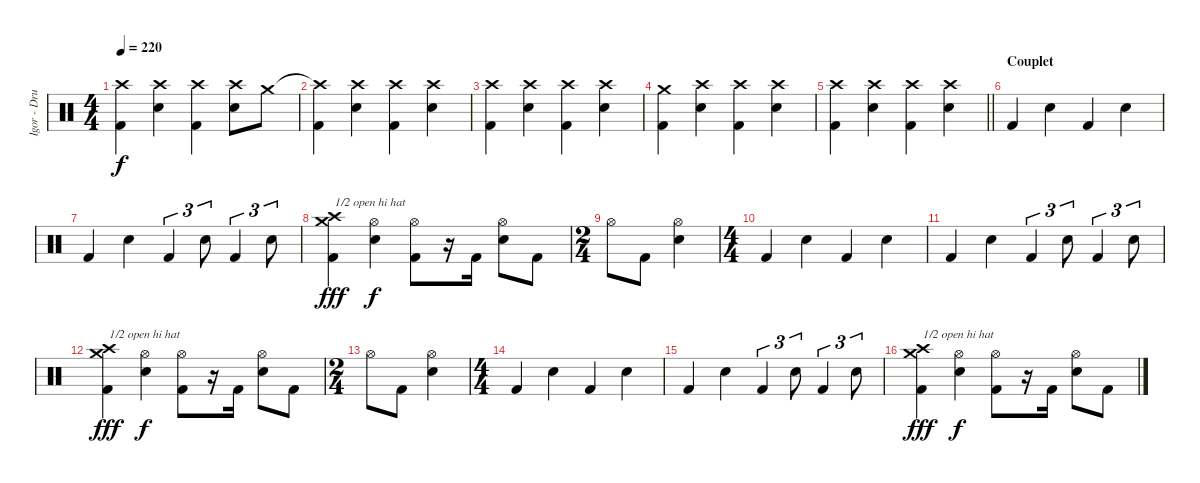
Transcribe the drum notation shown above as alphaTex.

\track ("Igor - Drums" "Igor - Dru") {instrument percussion}
\staff {score}
\articulation defaults
\ts (4 4)
\tempo 220
\clef neutral
\ks c
("Crash high (hit)" "Kick (hit) 2").4{dy f} ("Crash high (hit)" "Snare (hit) 2").4 ("Crash high (hit)" "Kick (hit) 2").4 ("Crash high (hit)" "Snare (hit) 2").8 "Crash medium (hit)".8 |
("Crash high (hit)"{t} "Kick (hit) 2").4 ("Crash high (hit)" "Snare (hit) 2").4 ("Crash high (hit)" "Kick (hit) 2").4 ("Crash high (hit)" "Snare (hit) 2").4 |
("Crash high (hit)" "Kick (hit) 2").4 ("Crash high (hit)" "Snare (hit) 2").4 ("Crash high (hit)" "Kick (hit) 2").4 ("Crash high (hit)" "Snare (hit) 2").4 |
("Crash medium (hit)" "Kick (hit) 2").4 ("Crash high (hit)" "Snare (hit) 2").4 ("Crash high (hit)" "Kick (hit) 2").4 ("Crash high (hit)" "Snare (hit) 2").4 |
\barLineRight lightlight
("Crash high (hit)" "Kick (hit) 2").4 ("Crash high (hit)" "Snare (hit) 2").4 ("Crash high (hit)" "Kick (hit) 2").4 ("Crash high (hit)" "Snare (hit) 2").4 |
\section ("" "Couplet")
"Kick (hit) 2".4 "Electric Snare (hit)".4 "Kick (hit) 2".4 "Electric Snare (hit)".4 |
"Kick (hit) 2".4 "Electric Snare (hit)".4 "Kick (hit) 2".4{tu (3 2)} "Electric Snare (hit)".8{tu (3 2)} "Kick (hit) 2".4{tu (3 2)} "Electric Snare (hit)".8{tu (3 2)} |
("Crash high (hit)" "Crash medium (hit)" "Kick (hit) 2").4{txt "1/2 open hi hat" dy fff} ("Hi-Hat (open)" "Electric Snare (hit)").4{dy f} ("Hi-Hat (open)" "Kick (hit) 2").8 r.16 "Kick (hit) 2".16 ("Hi-Hat (open)" "Electric Snare (hit)").8 "Kick (hit) 2".8 |
\ts (2 4)
"Hi-Hat (open)".8 "Kick (hit) 2".8 ("Hi-Hat (open)" "Electric Snare (hit)").4 |
\ts (4 4)
"Kick (hit) 2".4 "Electric Snare (hit)".4 "Kick (hit) 2".4 "Electric Snare (hit)".4 |
"Kick (hit) 2".4 "Electric Snare (hit)".4 "Kick (hit) 2".4{tu (3 2)} "Electric Snare (hit)".8{tu (3 2)} "Kick (hit) 2".4{tu (3 2)} "Electric Snare (hit)".8{tu (3 2)} |
("Crash high (hit)" "Crash medium (hit)" "Kick (hit) 2").4{txt "1/2 open hi hat" dy fff} ("Hi-Hat (open)" "Electric Snare (hit)").4{dy f} ("Hi-Hat (open)" "Kick (hit) 2").8 r.16 "Kick (hit) 2".16 ("Hi-Hat (open)" "Electric Snare (hit)").8 "Kick (hit) 2".8 |
\ts (2 4)
"Hi-Hat (open)".8 "Kick (hit) 2".8 ("Hi-Hat (open)" "Electric Snare (hit)").4 |
\ts (4 4)
"Kick (hit) 2".4 "Electric Snare (hit)".4 "Kick (hit) 2".4 "Electric Snare (hit)".4 |
"Kick (hit) 2".4 "Electric Snare (hit)".4 "Kick (hit) 2".4{tu (3 2)} "Electric Snare (hit)".8{tu (3 2)} "Kick (hit) 2".4{tu (3 2)} "Electric Snare (hit)".8{tu (3 2)} |
("Crash high (hit)" "Crash medium (hit)" "Kick (hit) 2").4{txt "1/2 open hi hat" dy fff} ("Hi-Hat (open)" "Electric Snare (hit)").4{dy f} ("Hi-Hat (open)" "Kick (hit) 2").8 r.16 "Kick (hit) 2".16 ("Hi-Hat (open)" "Electric Snare (hit)").8 "Kick (hit) 2".8
